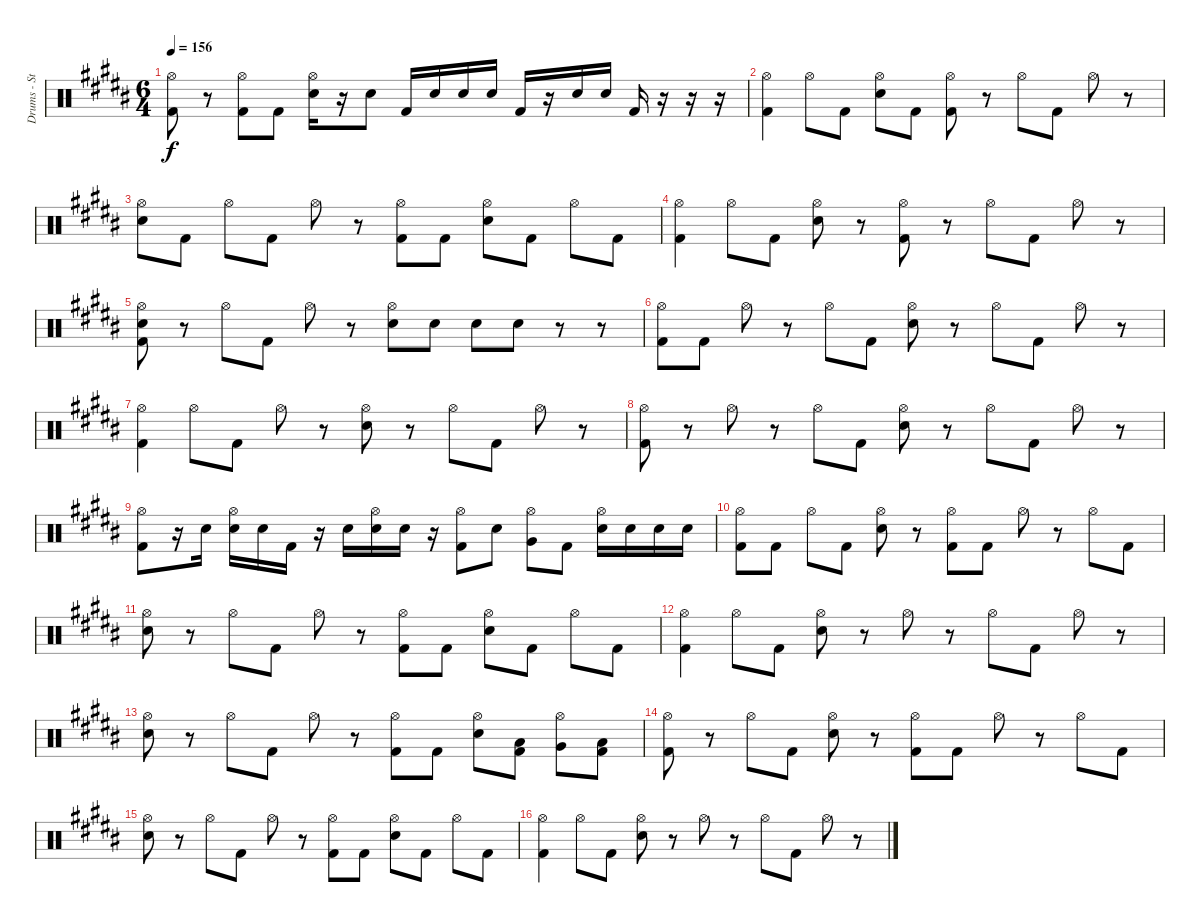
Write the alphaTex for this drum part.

\track ("Drums - Steve Judd" "Drums - St") {instrument percussion}
\staff {score}
\articulation defaults
\ts (6 4)
\tempo 156
\clef neutral
\ks b
("Hi-Hat (open)" "Kick (hit) 2").8{dy f} r.8 ("Hi-Hat (open)" "Kick (hit) 2").8 "Kick (hit) 2".8 ("Hi-Hat (open)" "Electric Snare (hit)").16 r.16 "Electric Snare (hit)".8 "Kick (hit) 2".16 "Electric Snare (hit)".16 "Electric Snare (hit)".16 "Electric Snare (hit)".16 "Kick (hit) 2".16 r.16 "Electric Snare (hit)".16 "Electric Snare (hit)".16 "Kick (hit) 2".16 r.16 r.16 r.16 |
("Hi-Hat (open)" "Kick (hit) 2").4 "Hi-Hat (open)".8 "Kick (hit) 2".8 ("Hi-Hat (open)" "Electric Snare (hit)").8 "Kick (hit) 2".8 ("Hi-Hat (open)" "Kick (hit) 2").8 r.8 "Hi-Hat (open)".8 "Kick (hit) 2".8 "Hi-Hat (open)".8 r.8 |
("Hi-Hat (open)" "Electric Snare (hit)").8 "Kick (hit) 2".8 "Hi-Hat (open)".8 "Kick (hit) 2".8 "Hi-Hat (open)".8 r.8 ("Hi-Hat (open)" "Kick (hit) 2").8 "Kick (hit) 2".8 ("Hi-Hat (open)" "Electric Snare (hit)").8 "Kick (hit) 2".8 "Hi-Hat (open)".8 "Kick (hit) 2".8 |
("Hi-Hat (open)" "Kick (hit) 2").4 "Hi-Hat (open)".8 "Kick (hit) 2".8 ("Hi-Hat (open)" "Electric Snare (hit)").8 r.8 ("Hi-Hat (open)" "Kick (hit) 2").8 r.8 "Hi-Hat (open)".8 "Kick (hit) 2".8 "Hi-Hat (open)".8 r.8 |
("Hi-Hat (open)" "Electric Snare (hit)" "Kick (hit) 2").8 r.8 "Hi-Hat (open)".8 "Kick (hit) 2".8 "Hi-Hat (open)".8 r.8 ("Hi-Hat (open)" "Electric Snare (hit)").8 "Electric Snare (hit)".8 "Electric Snare (hit)".8 "Electric Snare (hit)".8 r.8 r.8 |
("Hi-Hat (open)" "Kick (hit) 2").8 "Kick (hit) 2".8 "Hi-Hat (open)".8 r.8 "Hi-Hat (open)".8 "Kick (hit) 2".8 ("Hi-Hat (open)" "Electric Snare (hit)").8 r.8 "Hi-Hat (open)".8 "Kick (hit) 2".8 "Hi-Hat (open)".8 r.8 |
("Hi-Hat (open)" "Kick (hit) 2").4 "Hi-Hat (open)".8 "Kick (hit) 2".8 "Hi-Hat (open)".8 r.8 ("Hi-Hat (open)" "Electric Snare (hit)").8 r.8 "Hi-Hat (open)".8 "Kick (hit) 2".8 "Hi-Hat (open)".8 r.8 |
("Hi-Hat (open)" "Kick (hit) 2").8 r.8 "Hi-Hat (open)".8 r.8 "Hi-Hat (open)".8 "Kick (hit) 2".8 ("Hi-Hat (open)" "Electric Snare (hit)").8 r.8 "Hi-Hat (open)".8 "Kick (hit) 2".8 "Hi-Hat (open)".8 r.8 |
("Hi-Hat (open)" "Kick (hit) 2").8 r.16 "Electric Snare (hit)".16 ("Hi-Hat (open)" "Electric Snare (hit)").16 "Electric Snare (hit)".16 "Kick (hit) 2".16 r.16 "Electric Snare (hit)".16 ("Hi-Hat (open)" "Electric Snare (hit)").16 "Electric Snare (hit)".16 r.16 ("Hi-Hat (open)" "Kick (hit) 2").8 "Electric Snare (hit)".8 ("Hi-Hat (open)" "Very Low Tom (hit)").8 "Kick (hit) 2".8 ("Hi-Hat (open)" "Electric Snare (hit)").16 "Electric Snare (hit)".16 "Electric Snare (hit)".16 "Electric Snare (hit)".16 |
("Hi-Hat (open)" "Kick (hit) 2").8 "Kick (hit) 2".8 "Hi-Hat (open)".8 "Kick (hit) 2".8 ("Hi-Hat (open)" "Electric Snare (hit)").8 r.8 ("Hi-Hat (open)" "Kick (hit) 2").8 "Kick (hit) 2".8 "Hi-Hat (open)".8 r.8 "Hi-Hat (open)".8 "Kick (hit) 2".8 |
("Hi-Hat (open)" "Electric Snare (hit)").8 r.8 "Hi-Hat (open)".8 "Kick (hit) 2".8 "Hi-Hat (open)".8 r.8 ("Hi-Hat (open)" "Kick (hit) 2").8 "Kick (hit) 2".8 ("Hi-Hat (open)" "Electric Snare (hit)").8 "Kick (hit) 2".8 "Hi-Hat (open)".8 "Kick (hit) 2".8 |
("Hi-Hat (open)" "Kick (hit) 2").4 "Hi-Hat (open)".8 "Kick (hit) 2".8 ("Hi-Hat (open)" "Electric Snare (hit)").8 r.8 "Hi-Hat (open)".8 r.8 "Hi-Hat (open)".8 "Kick (hit) 2".8 "Hi-Hat (open)".8 r.8 |
("Hi-Hat (open)" "Electric Snare (hit)").8 r.8 "Hi-Hat (open)".8 "Kick (hit) 2".8 "Hi-Hat (open)".8 r.8 ("Hi-Hat (open)" "Kick (hit) 2").8 "Kick (hit) 2".8 ("Hi-Hat (open)" "Electric Snare (hit)").8 ("Low Tom (hit)" "Kick (hit) 2").8 ("Hi-Hat (open)" "Very Low Tom (hit)").8 ("Low Floor Tom (hit)" "Kick (hit) 2").8 |
("Hi-Hat (open)" "Kick (hit) 2").8 r.8 "Hi-Hat (open)".8 "Kick (hit) 2".8 ("Hi-Hat (open)" "Electric Snare (hit)").8 r.8 ("Hi-Hat (open)" "Kick (hit) 2").8 "Kick (hit) 2".8 "Hi-Hat (open)".8 r.8 "Hi-Hat (open)".8 "Kick (hit) 2".8 |
("Hi-Hat (open)" "Electric Snare (hit)").8 r.8 "Hi-Hat (open)".8 "Kick (hit) 2".8 "Hi-Hat (open)".8 r.8 ("Hi-Hat (open)" "Kick (hit) 2").8 "Kick (hit) 2".8 ("Hi-Hat (open)" "Electric Snare (hit)").8 "Kick (hit) 2".8 "Hi-Hat (open)".8 "Kick (hit) 2".8 |
("Hi-Hat (open)" "Kick (hit) 2").4 "Hi-Hat (open)".8 "Kick (hit) 2".8 ("Hi-Hat (open)" "Electric Snare (hit)").8 r.8 "Hi-Hat (open)".8 r.8 "Hi-Hat (open)".8 "Kick (hit) 2".8 "Hi-Hat (open)".8 r.8
